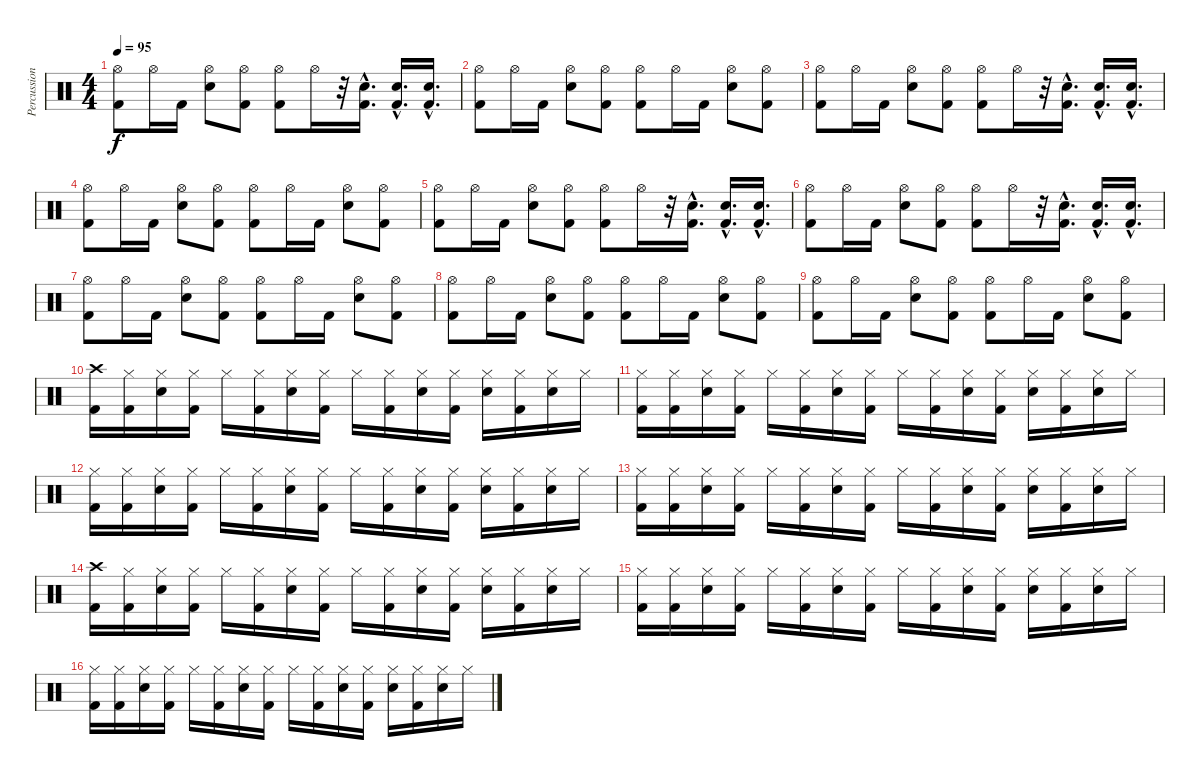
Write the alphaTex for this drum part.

\track ("Percussion" "Percussion") {instrument percussion}
\staff {score}
\articulation defaults
\ts (4 4)
\tempo 95
\clef neutral
\ks c
("Hi-Hat (open)" "Kick (hit) 2").8{dy f} "Hi-Hat (open)".16 "Kick (hit) 2".16 ("Hi-Hat (open)" "Electric Snare (hit)").8 ("Hi-Hat (open)" "Kick (hit) 2").8 ("Hi-Hat (open)" "Kick (hit) 2").8 "Hi-Hat (open)".16 r.32 ("Electric Snare (hit)"{hac} "Kick (hit) 2"{hac}).16{d} ("Electric Snare (hit)"{hac} "Kick (hit) 2"{hac}).16{d} ("Electric Snare (hit)"{hac} "Kick (hit) 2"{hac}).16{d} |
("Hi-Hat (open)" "Kick (hit) 2").8 "Hi-Hat (open)".16 "Kick (hit) 2".16 ("Hi-Hat (open)" "Electric Snare (hit)").8 ("Hi-Hat (open)" "Kick (hit) 2").8 ("Hi-Hat (open)" "Kick (hit) 2").8 "Hi-Hat (open)".16 "Kick (hit) 2".16 ("Hi-Hat (open)" "Electric Snare (hit)").8 ("Hi-Hat (open)" "Kick (hit) 2").8 |
("Hi-Hat (open)" "Kick (hit) 2").8 "Hi-Hat (open)".16 "Kick (hit) 2".16 ("Hi-Hat (open)" "Electric Snare (hit)").8 ("Hi-Hat (open)" "Kick (hit) 2").8 ("Hi-Hat (open)" "Kick (hit) 2").8 "Hi-Hat (open)".16 r.32 ("Electric Snare (hit)"{hac} "Kick (hit) 2"{hac}).16{d} ("Electric Snare (hit)"{hac} "Kick (hit) 2"{hac}).16{d} ("Electric Snare (hit)"{hac} "Kick (hit) 2"{hac}).16{d} |
("Hi-Hat (open)" "Kick (hit) 2").8 "Hi-Hat (open)".16 "Kick (hit) 2".16 ("Hi-Hat (open)" "Electric Snare (hit)").8 ("Hi-Hat (open)" "Kick (hit) 2").8 ("Hi-Hat (open)" "Kick (hit) 2").8 "Hi-Hat (open)".16 "Kick (hit) 2".16 ("Hi-Hat (open)" "Electric Snare (hit)").8 ("Hi-Hat (open)" "Kick (hit) 2").8 |
("Hi-Hat (open)" "Kick (hit) 2").8 "Hi-Hat (open)".16 "Kick (hit) 2".16 ("Hi-Hat (open)" "Electric Snare (hit)").8 ("Hi-Hat (open)" "Kick (hit) 2").8 ("Hi-Hat (open)" "Kick (hit) 2").8 "Hi-Hat (open)".16 r.32 ("Electric Snare (hit)"{hac} "Kick (hit) 2"{hac}).16{d} ("Electric Snare (hit)"{hac} "Kick (hit) 2"{hac}).16{d} ("Electric Snare (hit)"{hac} "Kick (hit) 2"{hac}).16{d} |
("Hi-Hat (open)" "Kick (hit) 2").8 "Hi-Hat (open)".16 "Kick (hit) 2".16 ("Hi-Hat (open)" "Electric Snare (hit)").8 ("Hi-Hat (open)" "Kick (hit) 2").8 ("Hi-Hat (open)" "Kick (hit) 2").8 "Hi-Hat (open)".16 r.32 ("Electric Snare (hit)"{hac} "Kick (hit) 2"{hac}).16{d} ("Electric Snare (hit)"{hac} "Kick (hit) 2"{hac}).16{d} ("Electric Snare (hit)"{hac} "Kick (hit) 2"{hac}).16{d} |
("Hi-Hat (open)" "Kick (hit) 2").8 "Hi-Hat (open)".16 "Kick (hit) 2".16 ("Hi-Hat (open)" "Electric Snare (hit)").8 ("Hi-Hat (open)" "Kick (hit) 2").8 ("Hi-Hat (open)" "Kick (hit) 2").8 "Hi-Hat (open)".16 "Kick (hit) 2".16 ("Hi-Hat (open)" "Electric Snare (hit)").8 ("Hi-Hat (open)" "Kick (hit) 2").8 |
("Hi-Hat (open)" "Kick (hit) 2").8 "Hi-Hat (open)".16 "Kick (hit) 2".16 ("Hi-Hat (open)" "Electric Snare (hit)").8 ("Hi-Hat (open)" "Kick (hit) 2").8 ("Hi-Hat (open)" "Kick (hit) 2").8 "Hi-Hat (open)".16 "Kick (hit) 2".16 ("Hi-Hat (open)" "Electric Snare (hit)").8 ("Hi-Hat (open)" "Kick (hit) 2").8 |
("Hi-Hat (open)" "Kick (hit) 2").8 "Hi-Hat (open)".16 "Kick (hit) 2".16 ("Hi-Hat (open)" "Electric Snare (hit)").8 ("Hi-Hat (open)" "Kick (hit) 2").8 ("Hi-Hat (open)" "Kick (hit) 2").8 "Hi-Hat (open)".16 "Kick (hit) 2".16 ("Hi-Hat (open)" "Electric Snare (hit)").8 ("Hi-Hat (open)" "Kick (hit) 2").8 |
("Crash high (hit)" "Kick (hit) 2").16 ("Hi-Hat (closed)" "Kick (hit) 2").16 ("Hi-Hat (closed)" "Electric Snare (hit)").16 ("Hi-Hat (closed)" "Kick (hit) 2").16 "Hi-Hat (closed)".16 ("Hi-Hat (closed)" "Kick (hit) 2").16 ("Hi-Hat (closed)" "Electric Snare (hit)").16 ("Hi-Hat (closed)" "Kick (hit) 2").16 "Hi-Hat (closed)".16 ("Hi-Hat (closed)" "Kick (hit) 2").16 ("Hi-Hat (closed)" "Electric Snare (hit)").16 ("Hi-Hat (closed)" "Kick (hit) 2").16 ("Hi-Hat (closed)" "Electric Snare (hit)").16 ("Hi-Hat (closed)" "Kick (hit) 2").16 ("Hi-Hat (closed)" "Electric Snare (hit)").16 "Hi-Hat (closed)".16 |
("Hi-Hat (closed)" "Kick (hit) 2").16 ("Hi-Hat (closed)" "Kick (hit) 2").16 ("Hi-Hat (closed)" "Electric Snare (hit)").16 ("Hi-Hat (closed)" "Kick (hit) 2").16 "Hi-Hat (closed)".16 ("Hi-Hat (closed)" "Kick (hit) 2").16 ("Hi-Hat (closed)" "Electric Snare (hit)").16 ("Hi-Hat (closed)" "Kick (hit) 2").16 "Hi-Hat (closed)".16 ("Hi-Hat (closed)" "Kick (hit) 2").16 ("Hi-Hat (closed)" "Electric Snare (hit)").16 ("Hi-Hat (closed)" "Kick (hit) 2").16 ("Hi-Hat (closed)" "Electric Snare (hit)").16 ("Hi-Hat (closed)" "Kick (hit) 2").16 ("Hi-Hat (closed)" "Electric Snare (hit)").16 "Hi-Hat (closed)".16 |
("Hi-Hat (closed)" "Kick (hit) 2").16 ("Hi-Hat (closed)" "Kick (hit) 2").16 ("Hi-Hat (closed)" "Electric Snare (hit)").16 ("Hi-Hat (closed)" "Kick (hit) 2").16 "Hi-Hat (closed)".16 ("Hi-Hat (closed)" "Kick (hit) 2").16 ("Hi-Hat (closed)" "Electric Snare (hit)").16 ("Hi-Hat (closed)" "Kick (hit) 2").16 "Hi-Hat (closed)".16 ("Hi-Hat (closed)" "Kick (hit) 2").16 ("Hi-Hat (closed)" "Electric Snare (hit)").16 ("Hi-Hat (closed)" "Kick (hit) 2").16 ("Hi-Hat (closed)" "Electric Snare (hit)").16 ("Hi-Hat (closed)" "Kick (hit) 2").16 ("Hi-Hat (closed)" "Electric Snare (hit)").16 "Hi-Hat (closed)".16 |
("Hi-Hat (closed)" "Kick (hit) 2").16 ("Hi-Hat (closed)" "Kick (hit) 2").16 ("Hi-Hat (closed)" "Electric Snare (hit)").16 ("Hi-Hat (closed)" "Kick (hit) 2").16 "Hi-Hat (closed)".16 ("Hi-Hat (closed)" "Kick (hit) 2").16 ("Hi-Hat (closed)" "Electric Snare (hit)").16 ("Hi-Hat (closed)" "Kick (hit) 2").16 "Hi-Hat (closed)".16 ("Hi-Hat (closed)" "Kick (hit) 2").16 ("Hi-Hat (closed)" "Electric Snare (hit)").16 ("Hi-Hat (closed)" "Kick (hit) 2").16 ("Hi-Hat (closed)" "Electric Snare (hit)").16 ("Hi-Hat (closed)" "Kick (hit) 2").16 ("Hi-Hat (closed)" "Electric Snare (hit)").16 "Hi-Hat (closed)".16 |
("Crash high (hit)" "Kick (hit) 2").16 ("Hi-Hat (closed)" "Kick (hit) 2").16 ("Hi-Hat (closed)" "Electric Snare (hit)").16 ("Hi-Hat (closed)" "Kick (hit) 2").16 "Hi-Hat (closed)".16 ("Hi-Hat (closed)" "Kick (hit) 2").16 ("Hi-Hat (closed)" "Electric Snare (hit)").16 ("Hi-Hat (closed)" "Kick (hit) 2").16 "Hi-Hat (closed)".16 ("Hi-Hat (closed)" "Kick (hit) 2").16 ("Hi-Hat (closed)" "Electric Snare (hit)").16 ("Hi-Hat (closed)" "Kick (hit) 2").16 ("Hi-Hat (closed)" "Electric Snare (hit)").16 ("Hi-Hat (closed)" "Kick (hit) 2").16 ("Hi-Hat (closed)" "Electric Snare (hit)").16 "Hi-Hat (closed)".16 |
("Hi-Hat (closed)" "Kick (hit) 2").16 ("Hi-Hat (closed)" "Kick (hit) 2").16 ("Hi-Hat (closed)" "Electric Snare (hit)").16 ("Hi-Hat (closed)" "Kick (hit) 2").16 "Hi-Hat (closed)".16 ("Hi-Hat (closed)" "Kick (hit) 2").16 ("Hi-Hat (closed)" "Electric Snare (hit)").16 ("Hi-Hat (closed)" "Kick (hit) 2").16 "Hi-Hat (closed)".16 ("Hi-Hat (closed)" "Kick (hit) 2").16 ("Hi-Hat (closed)" "Electric Snare (hit)").16 ("Hi-Hat (closed)" "Kick (hit) 2").16 ("Hi-Hat (closed)" "Electric Snare (hit)").16 ("Hi-Hat (closed)" "Kick (hit) 2").16 ("Hi-Hat (closed)" "Electric Snare (hit)").16 "Hi-Hat (closed)".16 |
("Hi-Hat (closed)" "Kick (hit) 2").16 ("Hi-Hat (closed)" "Kick (hit) 2").16 ("Hi-Hat (closed)" "Electric Snare (hit)").16 ("Hi-Hat (closed)" "Kick (hit) 2").16 "Hi-Hat (closed)".16 ("Hi-Hat (closed)" "Kick (hit) 2").16 ("Hi-Hat (closed)" "Electric Snare (hit)").16 ("Hi-Hat (closed)" "Kick (hit) 2").16 "Hi-Hat (closed)".16 ("Hi-Hat (closed)" "Kick (hit) 2").16 ("Hi-Hat (closed)" "Electric Snare (hit)").16 ("Hi-Hat (closed)" "Kick (hit) 2").16 ("Hi-Hat (closed)" "Electric Snare (hit)").16 ("Hi-Hat (closed)" "Kick (hit) 2").16 ("Hi-Hat (closed)" "Electric Snare (hit)").16 "Hi-Hat (closed)".16
